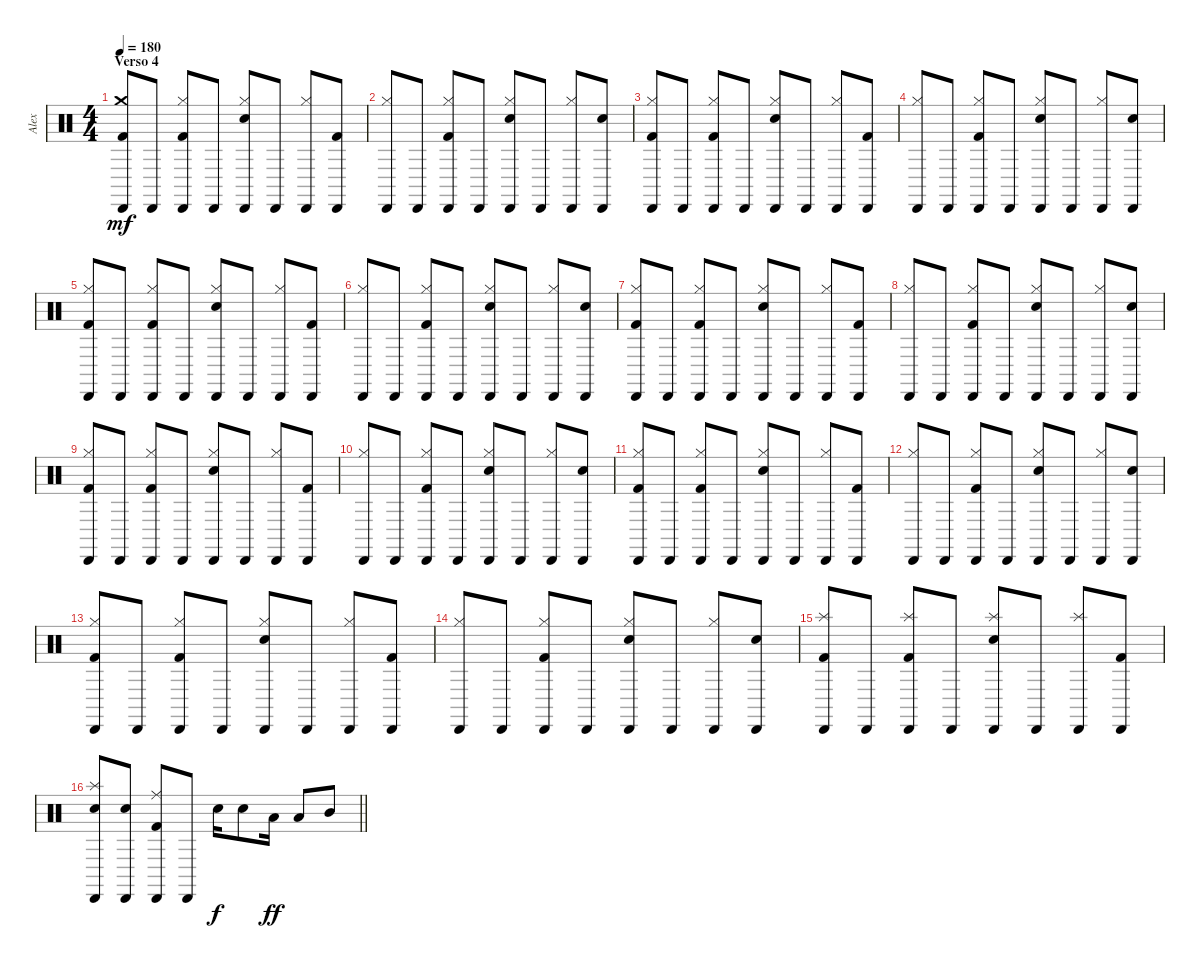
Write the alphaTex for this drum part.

\track ("Alex" "Alex") {instrument percussion}
\staff {score}
\articulation defaults
\ts (4 4)
\section ("" "Verso 4")
\tempo 180
\clef neutral
\ks c
("Crash medium (hit)" "Kick (hit) 2" "Cabasa (hit)").8{dy mf} "Cabasa (hit)".8 ("Hi-Hat (closed)" "Kick (hit) 2" "Cabasa (hit)").8 "Cabasa (hit)".8 ("Hi-Hat (closed)" "Snare (hit) 2" "Cabasa (hit)").8 "Cabasa (hit)".8 ("Hi-Hat (closed)" "Cabasa (hit)").8 ("Kick (hit) 2" "Cabasa (hit)").8 |
("Hi-Hat (closed)" "Cabasa (hit)").8 "Cabasa (hit)".8 ("Hi-Hat (closed)" "Kick (hit) 2" "Cabasa (hit)").8 "Cabasa (hit)".8 ("Hi-Hat (closed)" "Snare (hit) 2" "Cabasa (hit)").8 "Cabasa (hit)".8 ("Hi-Hat (closed)" "Cabasa (hit)").8 ("Snare (hit) 2" "Cabasa (hit)").8 |
("Hi-Hat (closed)" "Kick (hit) 2" "Cabasa (hit)").8 "Cabasa (hit)".8 ("Hi-Hat (closed)" "Kick (hit) 2" "Cabasa (hit)").8 "Cabasa (hit)".8 ("Hi-Hat (closed)" "Snare (hit) 2" "Cabasa (hit)").8 "Cabasa (hit)".8 ("Hi-Hat (closed)" "Cabasa (hit)").8 ("Kick (hit) 2" "Cabasa (hit)").8 |
("Hi-Hat (closed)" "Cabasa (hit)").8 "Cabasa (hit)".8 ("Hi-Hat (closed)" "Kick (hit) 2" "Cabasa (hit)").8 "Cabasa (hit)".8 ("Hi-Hat (closed)" "Snare (hit) 2" "Cabasa (hit)").8 "Cabasa (hit)".8 ("Hi-Hat (closed)" "Cabasa (hit)").8 ("Snare (hit) 2" "Cabasa (hit)").8 |
("Hi-Hat (closed)" "Kick (hit) 2" "Cabasa (hit)").8 "Cabasa (hit)".8 ("Hi-Hat (closed)" "Kick (hit) 2" "Cabasa (hit)").8 "Cabasa (hit)".8 ("Hi-Hat (closed)" "Snare (hit) 2" "Cabasa (hit)").8 "Cabasa (hit)".8 ("Hi-Hat (closed)" "Cabasa (hit)").8 ("Kick (hit) 2" "Cabasa (hit)").8 |
("Hi-Hat (closed)" "Cabasa (hit)").8 "Cabasa (hit)".8 ("Hi-Hat (closed)" "Kick (hit) 2" "Cabasa (hit)").8 "Cabasa (hit)".8 ("Hi-Hat (closed)" "Snare (hit) 2" "Cabasa (hit)").8 "Cabasa (hit)".8 ("Hi-Hat (closed)" "Cabasa (hit)").8 ("Snare (hit) 2" "Cabasa (hit)").8 |
("Hi-Hat (closed)" "Kick (hit) 2" "Cabasa (hit)").8 "Cabasa (hit)".8 ("Hi-Hat (closed)" "Kick (hit) 2" "Cabasa (hit)").8 "Cabasa (hit)".8 ("Hi-Hat (closed)" "Snare (hit) 2" "Cabasa (hit)").8 "Cabasa (hit)".8 ("Hi-Hat (closed)" "Cabasa (hit)").8 ("Kick (hit) 2" "Cabasa (hit)").8 |
("Hi-Hat (closed)" "Cabasa (hit)").8 "Cabasa (hit)".8 ("Hi-Hat (closed)" "Kick (hit) 2" "Cabasa (hit)").8 "Cabasa (hit)".8 ("Hi-Hat (closed)" "Snare (hit) 2" "Cabasa (hit)").8 "Cabasa (hit)".8 ("Hi-Hat (closed)" "Cabasa (hit)").8 ("Snare (hit) 2" "Cabasa (hit)").8 |
("Hi-Hat (closed)" "Kick (hit) 2" "Cabasa (hit)").8 "Cabasa (hit)".8 ("Hi-Hat (closed)" "Kick (hit) 2" "Cabasa (hit)").8 "Cabasa (hit)".8 ("Hi-Hat (closed)" "Snare (hit) 2" "Cabasa (hit)").8 "Cabasa (hit)".8 ("Hi-Hat (closed)" "Cabasa (hit)").8 ("Kick (hit) 2" "Cabasa (hit)").8 |
("Hi-Hat (closed)" "Cabasa (hit)").8 "Cabasa (hit)".8 ("Hi-Hat (closed)" "Kick (hit) 2" "Cabasa (hit)").8 "Cabasa (hit)".8 ("Hi-Hat (closed)" "Snare (hit) 2" "Cabasa (hit)").8 "Cabasa (hit)".8 ("Hi-Hat (closed)" "Cabasa (hit)").8 ("Snare (hit) 2" "Cabasa (hit)").8 |
("Hi-Hat (closed)" "Kick (hit) 2" "Cabasa (hit)").8 "Cabasa (hit)".8 ("Hi-Hat (closed)" "Kick (hit) 2" "Cabasa (hit)").8 "Cabasa (hit)".8 ("Hi-Hat (closed)" "Snare (hit) 2" "Cabasa (hit)").8 "Cabasa (hit)".8 ("Hi-Hat (closed)" "Cabasa (hit)").8 ("Kick (hit) 2" "Cabasa (hit)").8 |
("Hi-Hat (closed)" "Cabasa (hit)").8 "Cabasa (hit)".8 ("Hi-Hat (closed)" "Kick (hit) 2" "Cabasa (hit)").8 "Cabasa (hit)".8 ("Hi-Hat (closed)" "Snare (hit) 2" "Cabasa (hit)").8 "Cabasa (hit)".8 ("Hi-Hat (closed)" "Cabasa (hit)").8 ("Snare (hit) 2" "Cabasa (hit)").8 |
("Hi-Hat (closed)" "Kick (hit) 2" "Cabasa (hit)").8 "Cabasa (hit)".8 ("Hi-Hat (closed)" "Kick (hit) 2" "Cabasa (hit)").8 "Cabasa (hit)".8 ("Hi-Hat (closed)" "Snare (hit) 2" "Cabasa (hit)").8 "Cabasa (hit)".8 ("Hi-Hat (closed)" "Cabasa (hit)").8 ("Kick (hit) 2" "Cabasa (hit)").8 |
("Hi-Hat (closed)" "Cabasa (hit)").8 "Cabasa (hit)".8 ("Hi-Hat (closed)" "Kick (hit) 2" "Cabasa (hit)").8 "Cabasa (hit)".8 ("Hi-Hat (closed)" "Snare (hit) 2" "Cabasa (hit)").8 "Cabasa (hit)".8 ("Hi-Hat (closed)" "Cabasa (hit)").8 ("Snare (hit) 2" "Cabasa (hit)").8 |
("Splash (hit)" "Kick (hit) 2" "Cabasa (hit)").8 "Cabasa (hit)".8 ("Splash (hit)" "Kick (hit) 2" "Cabasa (hit)").8 "Cabasa (hit)".8 ("Splash (hit)" "Snare (hit) 2" "Cabasa (hit)").8 "Cabasa (hit)".8 ("Splash (hit)" "Cabasa (hit)").8 ("Kick (hit) 2" "Cabasa (hit)").8 |
\barLineRight lightlight
("Splash (hit)" "Snare (hit) 2" "Cabasa (hit)").8 ("Snare (hit) 2" "Cabasa (hit)").8 ("Ride (middle)" "Kick (hit) 2" "Cabasa (hit)").8 "Cabasa (hit)".8 "Snare (hit) 2".16{dy f} "Snare (hit) 2".8 "Low Tom (hit)".16{dy ff} "Low Tom (hit)".8 "Mid Tom (hit)".8
